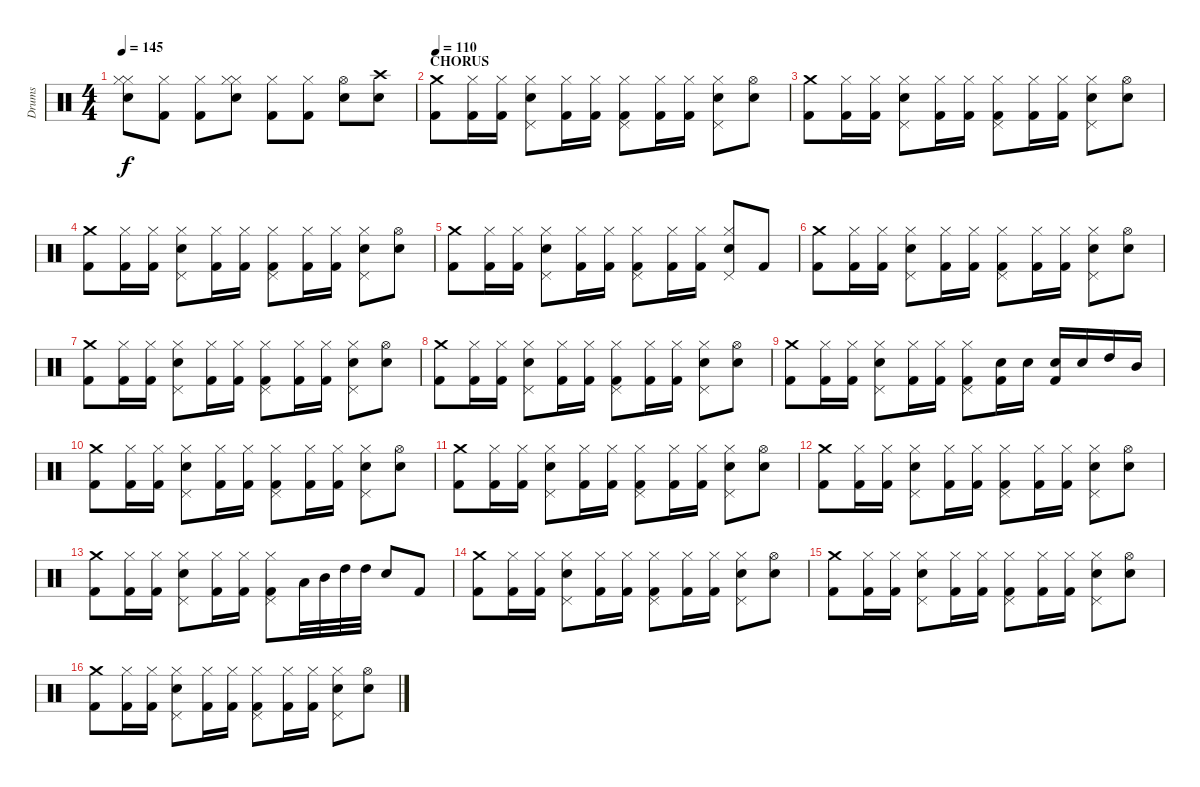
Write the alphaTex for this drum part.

\track ("Drums" "Drums") {instrument percussion}
\staff {score}
\articulation defaults
\ts (4 4)
\tempo 145
\clef neutral
\ks c
("Snare (hit) 2" "Hi-Hat (closed)" "Hi-Hat (closed)").8{dy f} ("Kick (hit) 2" "Hi-Hat (closed)").8 ("Kick (hit) 2" "Hi-Hat (closed)").8 ("Snare (hit) 2" "Hi-Hat (closed)" "Hi-Hat (closed)").8 ("Kick (hit) 2" "Hi-Hat (closed)").8 ("Kick (hit) 2" "Hi-Hat (closed)").8 ("Snare (hit) 2" "Hi-Hat (open)").8 ("Crash high (hit)" "Snare (hit) 2").8 |
\section ("" "CHORUS")
\tempo 110
("Crash medium (hit)" "Kick (hit) 2").8 ("Kick (hit) 2" "Hi-Hat (closed)").16 ("Kick (hit) 2" "Hi-Hat (closed)").16 ("Snare (hit) 2" "Pedal Hi-Hat (hit)" "Hi-Hat (closed)").8 ("Kick (hit) 2" "Hi-Hat (closed)").16 ("Kick (hit) 2" "Hi-Hat (closed)").16 ("Kick (hit) 2" "Pedal Hi-Hat (hit)" "Hi-Hat (closed)").8 ("Kick (hit) 2" "Hi-Hat (closed)").16 ("Kick (hit) 2" "Hi-Hat (closed)").16 ("Snare (hit) 2" "Pedal Hi-Hat (hit)" "Hi-Hat (closed)").8 ("Snare (hit) 2" "Hi-Hat (open)").8 |
("Crash medium (hit)" "Kick (hit) 2").8 ("Kick (hit) 2" "Hi-Hat (closed)").16 ("Kick (hit) 2" "Hi-Hat (closed)").16 ("Snare (hit) 2" "Pedal Hi-Hat (hit)" "Hi-Hat (closed)").8 ("Kick (hit) 2" "Hi-Hat (closed)").16 ("Kick (hit) 2" "Hi-Hat (closed)").16 ("Kick (hit) 2" "Pedal Hi-Hat (hit)" "Hi-Hat (closed)").8 ("Kick (hit) 2" "Hi-Hat (closed)").16 ("Kick (hit) 2" "Hi-Hat (closed)").16 ("Snare (hit) 2" "Pedal Hi-Hat (hit)" "Hi-Hat (closed)").8 ("Snare (hit) 2" "Hi-Hat (open)").8 |
("Crash medium (hit)" "Kick (hit) 2").8 ("Kick (hit) 2" "Hi-Hat (closed)").16 ("Kick (hit) 2" "Hi-Hat (closed)").16 ("Snare (hit) 2" "Pedal Hi-Hat (hit)" "Hi-Hat (closed)").8 ("Kick (hit) 2" "Hi-Hat (closed)").16 ("Kick (hit) 2" "Hi-Hat (closed)").16 ("Kick (hit) 2" "Pedal Hi-Hat (hit)" "Hi-Hat (closed)").8 ("Kick (hit) 2" "Hi-Hat (closed)").16 ("Kick (hit) 2" "Hi-Hat (closed)").16 ("Snare (hit) 2" "Pedal Hi-Hat (hit)" "Hi-Hat (closed)").8 ("Snare (hit) 2" "Hi-Hat (open)").8 |
("Crash medium (hit)" "Kick (hit) 2").8 ("Kick (hit) 2" "Hi-Hat (closed)").16 ("Kick (hit) 2" "Hi-Hat (closed)").16 ("Snare (hit) 2" "Pedal Hi-Hat (hit)" "Hi-Hat (closed)").8 ("Kick (hit) 2" "Hi-Hat (closed)").16 ("Kick (hit) 2" "Hi-Hat (closed)").16 ("Kick (hit) 2" "Pedal Hi-Hat (hit)" "Hi-Hat (closed)").8 ("Kick (hit) 2" "Hi-Hat (closed)").16 ("Kick (hit) 2" "Hi-Hat (closed)").16 ("Snare (hit) 2" "Pedal Hi-Hat (hit)" "Hi-Hat (closed)").8 "Kick (hit) 2".8 |
("Crash medium (hit)" "Kick (hit) 2").8 ("Kick (hit) 2" "Hi-Hat (closed)").16 ("Kick (hit) 2" "Hi-Hat (closed)").16 ("Snare (hit) 2" "Pedal Hi-Hat (hit)" "Hi-Hat (closed)").8 ("Kick (hit) 2" "Hi-Hat (closed)").16 ("Kick (hit) 2" "Hi-Hat (closed)").16 ("Kick (hit) 2" "Pedal Hi-Hat (hit)" "Hi-Hat (closed)").8 ("Kick (hit) 2" "Hi-Hat (closed)").16 ("Kick (hit) 2" "Hi-Hat (closed)").16 ("Snare (hit) 2" "Pedal Hi-Hat (hit)" "Hi-Hat (closed)").8 ("Snare (hit) 2" "Hi-Hat (open)").8 |
("Crash medium (hit)" "Kick (hit) 2").8 ("Kick (hit) 2" "Hi-Hat (closed)").16 ("Kick (hit) 2" "Hi-Hat (closed)").16 ("Snare (hit) 2" "Pedal Hi-Hat (hit)" "Hi-Hat (closed)").8 ("Kick (hit) 2" "Hi-Hat (closed)").16 ("Kick (hit) 2" "Hi-Hat (closed)").16 ("Kick (hit) 2" "Pedal Hi-Hat (hit)" "Hi-Hat (closed)").8 ("Kick (hit) 2" "Hi-Hat (closed)").16 ("Kick (hit) 2" "Hi-Hat (closed)").16 ("Snare (hit) 2" "Pedal Hi-Hat (hit)" "Hi-Hat (closed)").8 ("Snare (hit) 2" "Hi-Hat (open)").8 |
("Crash medium (hit)" "Kick (hit) 2").8 ("Kick (hit) 2" "Hi-Hat (closed)").16 ("Kick (hit) 2" "Hi-Hat (closed)").16 ("Snare (hit) 2" "Pedal Hi-Hat (hit)" "Hi-Hat (closed)").8 ("Kick (hit) 2" "Hi-Hat (closed)").16 ("Kick (hit) 2" "Hi-Hat (closed)").16 ("Kick (hit) 2" "Pedal Hi-Hat (hit)" "Hi-Hat (closed)").8 ("Kick (hit) 2" "Hi-Hat (closed)").16 ("Kick (hit) 2" "Hi-Hat (closed)").16 ("Snare (hit) 2" "Pedal Hi-Hat (hit)" "Hi-Hat (closed)").8 ("Snare (hit) 2" "Hi-Hat (open)").8 |
("Crash medium (hit)" "Kick (hit) 2").8 ("Kick (hit) 2" "Hi-Hat (closed)").16 ("Kick (hit) 2" "Hi-Hat (closed)").16 ("Snare (hit) 2" "Pedal Hi-Hat (hit)" "Hi-Hat (closed)").8 ("Kick (hit) 2" "Hi-Hat (closed)").16 ("Kick (hit) 2" "Hi-Hat (closed)").16 ("Kick (hit) 2" "Pedal Hi-Hat (hit)" "Hi-Hat (closed)").8 ("Snare (hit) 2" "Kick (hit) 2").16 "Snare (hit) 2".16 ("Snare (hit) 2" "Kick (hit) 2").16 "Snare (hit) 2".16 "High Tom (hit)".16 "Mid Tom (hit)".16 |
("Crash medium (hit)" "Kick (hit) 2").8 ("Kick (hit) 2" "Hi-Hat (closed)").16 ("Kick (hit) 2" "Hi-Hat (closed)").16 ("Snare (hit) 2" "Pedal Hi-Hat (hit)" "Hi-Hat (closed)").8 ("Kick (hit) 2" "Hi-Hat (closed)").16 ("Kick (hit) 2" "Hi-Hat (closed)").16 ("Kick (hit) 2" "Pedal Hi-Hat (hit)" "Hi-Hat (closed)").8 ("Kick (hit) 2" "Hi-Hat (closed)").16 ("Kick (hit) 2" "Hi-Hat (closed)").16 ("Snare (hit) 2" "Pedal Hi-Hat (hit)" "Hi-Hat (closed)").8 ("Snare (hit) 2" "Hi-Hat (open)").8 |
("Crash medium (hit)" "Kick (hit) 2").8 ("Kick (hit) 2" "Hi-Hat (closed)").16 ("Kick (hit) 2" "Hi-Hat (closed)").16 ("Snare (hit) 2" "Pedal Hi-Hat (hit)" "Hi-Hat (closed)").8 ("Kick (hit) 2" "Hi-Hat (closed)").16 ("Kick (hit) 2" "Hi-Hat (closed)").16 ("Kick (hit) 2" "Pedal Hi-Hat (hit)" "Hi-Hat (closed)").8 ("Kick (hit) 2" "Hi-Hat (closed)").16 ("Kick (hit) 2" "Hi-Hat (closed)").16 ("Snare (hit) 2" "Pedal Hi-Hat (hit)" "Hi-Hat (closed)").8 ("Snare (hit) 2" "Hi-Hat (open)").8 |
("Crash medium (hit)" "Kick (hit) 2").8 ("Kick (hit) 2" "Hi-Hat (closed)").16 ("Kick (hit) 2" "Hi-Hat (closed)").16 ("Snare (hit) 2" "Pedal Hi-Hat (hit)" "Hi-Hat (closed)").8 ("Kick (hit) 2" "Hi-Hat (closed)").16 ("Kick (hit) 2" "Hi-Hat (closed)").16 ("Kick (hit) 2" "Pedal Hi-Hat (hit)" "Hi-Hat (closed)").8 ("Kick (hit) 2" "Hi-Hat (closed)").16 ("Kick (hit) 2" "Hi-Hat (closed)").16 ("Snare (hit) 2" "Pedal Hi-Hat (hit)" "Hi-Hat (closed)").8 ("Snare (hit) 2" "Hi-Hat (open)").8 |
("Crash medium (hit)" "Kick (hit) 2").8 ("Kick (hit) 2" "Hi-Hat (closed)").16 ("Kick (hit) 2" "Hi-Hat (closed)").16 ("Snare (hit) 2" "Pedal Hi-Hat (hit)" "Hi-Hat (closed)").8 ("Kick (hit) 2" "Hi-Hat (closed)").16 ("Kick (hit) 2" "Hi-Hat (closed)").16 ("Kick (hit) 2" "Pedal Hi-Hat (hit)" "Hi-Hat (closed)").8 "Low Tom (hit)".32 "Mid Tom (hit)".32 "High Tom (hit)".32 "High Tom (hit)".32 "Snare (hit) 2".8 "Kick (hit) 2".8 |
("Crash medium (hit)" "Kick (hit) 2").8 ("Kick (hit) 2" "Hi-Hat (closed)").16 ("Kick (hit) 2" "Hi-Hat (closed)").16 ("Snare (hit) 2" "Pedal Hi-Hat (hit)" "Hi-Hat (closed)").8 ("Kick (hit) 2" "Hi-Hat (closed)").16 ("Kick (hit) 2" "Hi-Hat (closed)").16 ("Kick (hit) 2" "Pedal Hi-Hat (hit)" "Hi-Hat (closed)").8 ("Kick (hit) 2" "Hi-Hat (closed)").16 ("Kick (hit) 2" "Hi-Hat (closed)").16 ("Snare (hit) 2" "Pedal Hi-Hat (hit)" "Hi-Hat (closed)").8 ("Snare (hit) 2" "Hi-Hat (open)").8 |
("Crash medium (hit)" "Kick (hit) 2").8 ("Kick (hit) 2" "Hi-Hat (closed)").16 ("Kick (hit) 2" "Hi-Hat (closed)").16 ("Snare (hit) 2" "Pedal Hi-Hat (hit)" "Hi-Hat (closed)").8 ("Kick (hit) 2" "Hi-Hat (closed)").16 ("Kick (hit) 2" "Hi-Hat (closed)").16 ("Kick (hit) 2" "Pedal Hi-Hat (hit)" "Hi-Hat (closed)").8 ("Kick (hit) 2" "Hi-Hat (closed)").16 ("Kick (hit) 2" "Hi-Hat (closed)").16 ("Snare (hit) 2" "Pedal Hi-Hat (hit)" "Hi-Hat (closed)").8 ("Snare (hit) 2" "Hi-Hat (open)").8 |
("Crash medium (hit)" "Kick (hit) 2").8 ("Kick (hit) 2" "Hi-Hat (closed)").16 ("Kick (hit) 2" "Hi-Hat (closed)").16 ("Snare (hit) 2" "Pedal Hi-Hat (hit)" "Hi-Hat (closed)").8 ("Kick (hit) 2" "Hi-Hat (closed)").16 ("Kick (hit) 2" "Hi-Hat (closed)").16 ("Kick (hit) 2" "Pedal Hi-Hat (hit)" "Hi-Hat (closed)").8 ("Kick (hit) 2" "Hi-Hat (closed)").16 ("Kick (hit) 2" "Hi-Hat (closed)").16 ("Snare (hit) 2" "Pedal Hi-Hat (hit)" "Hi-Hat (closed)").8 ("Snare (hit) 2" "Hi-Hat (open)").8
